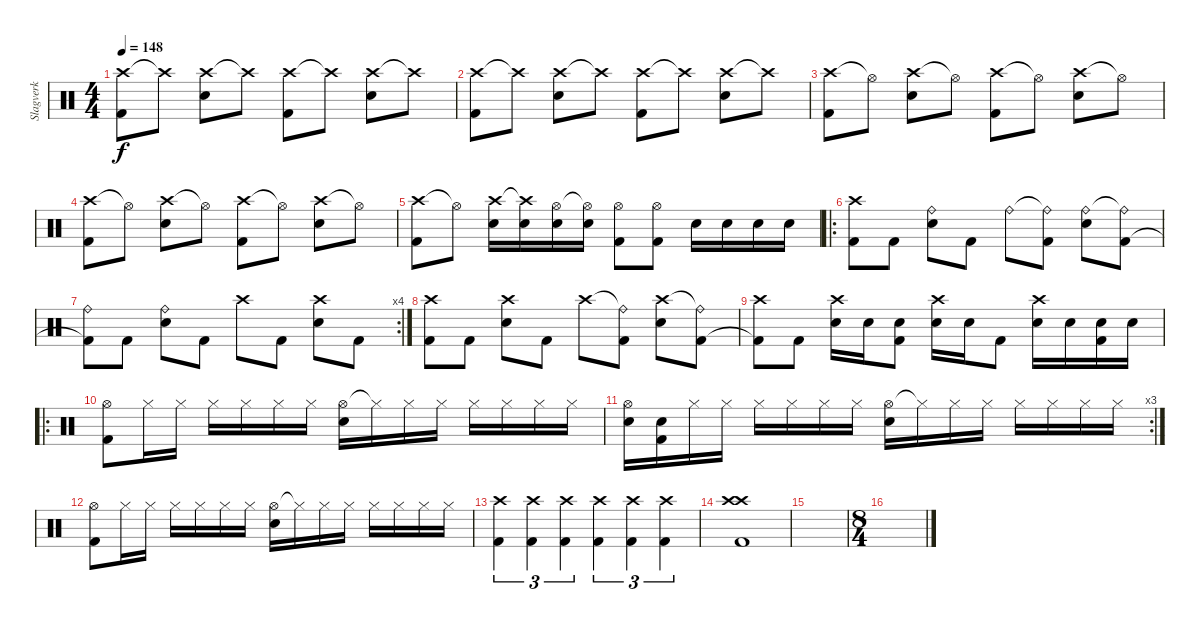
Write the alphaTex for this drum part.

\track ("Slagverk" "Slagverk") {instrument percussion}
\staff {score}
\articulation defaults
\ts (4 4)
\tempo 148
\clef neutral
\ks c
("Crash high (hit)" "Kick (hit) 2").8{dy f} "Crash high (hit)"{t}.8 ("Crash high (hit)" "Electric Snare (hit)").8 "Crash high (hit)"{t}.8 ("Crash high (hit)" "Kick (hit) 2").8 "Crash high (hit)"{t}.8 ("Crash high (hit)" "Electric Snare (hit)").8 "Crash high (hit)"{t}.8 |
("Crash high (hit)" "Kick (hit) 2").8 "Crash high (hit)"{t}.8 ("Crash high (hit)" "Electric Snare (hit)").8 "Crash high (hit)"{t}.8 ("Crash high (hit)" "Kick (hit) 2").8 "Crash high (hit)"{t}.8 ("Crash high (hit)" "Electric Snare (hit)").8 "Crash high (hit)"{t}.8 |
("Crash high (hit)" "Kick (hit) 2").8 "Hi-Hat (open)"{t}.8 ("Crash high (hit)" "Electric Snare (hit)").8 "Hi-Hat (open)"{t}.8 ("Crash high (hit)" "Kick (hit) 2").8 "Hi-Hat (open)"{t}.8 ("Crash high (hit)" "Electric Snare (hit)").8 "Hi-Hat (open)"{t}.8 |
("Crash high (hit)" "Kick (hit) 2").8 "Hi-Hat (open)"{t}.8 ("Crash high (hit)" "Electric Snare (hit)").8 "Hi-Hat (open)"{t}.8 ("Crash high (hit)" "Kick (hit) 2").8 "Hi-Hat (open)"{t}.8 ("Crash high (hit)" "Electric Snare (hit)").8 "Hi-Hat (open)"{t}.8 |
("Crash high (hit)" "Kick (hit) 2").8 "Hi-Hat (open)"{t}.8 ("Crash high (hit)" "Electric Snare (hit)").16 ("Crash high (hit)"{t} "Electric Snare (hit)").16 ("Hi-Hat (open)" "Electric Snare (hit)").16 ("Hi-Hat (open)"{t} "Electric Snare (hit)").16 ("Hi-Hat (open)" "Kick (hit) 2").8 ("Hi-Hat (open)" "Kick (hit) 2").8 "Electric Snare (hit)".16 "Electric Snare (hit)".16 "Electric Snare (hit)".16 "Electric Snare (hit)".16 |
\ro
("Crash high (hit)" "Kick (hit) 2").8 "Kick (hit) 2".8 ("Ride (bell)" "Electric Snare (hit)").8 "Kick (hit) 2".8 "Ride (bell)".8 ("Ride (bell)"{t} "Kick (hit) 2").8 ("Ride (bell)" "Electric Snare (hit)").8 ("Ride (bell)"{t} "Kick (hit) 2").8 |
\rc 4
("Ride (bell)" "Kick (hit) 2"{t}).8 "Kick (hit) 2".8 ("Ride (bell)" "Electric Snare (hit)").8 "Kick (hit) 2".8 "Crash high (hit)".8 "Kick (hit) 2".8 ("Crash high (hit)" "Electric Snare (hit)").8 "Kick (hit) 2".8 |
("Crash high (hit)" "Kick (hit) 2").8 "Kick (hit) 2".8 ("Crash high (hit)" "Electric Snare (hit)").8 "Kick (hit) 2".8 "Crash high (hit)".8 ("Ride (bell)"{t} "Kick (hit) 2").8 ("Crash high (hit)" "Electric Snare (hit)").8 ("Ride (bell)"{t} "Kick (hit) 2").8 |
("Crash high (hit)" "Kick (hit) 2"{t}).8 "Kick (hit) 2".8 ("Crash high (hit)" "Electric Snare (hit)").16 "Electric Snare (hit)".16 ("Electric Snare (hit)" "Kick (hit) 2").8 ("Crash high (hit)" "Electric Snare (hit)").16 "Electric Snare (hit)".16 "Kick (hit) 2".8 ("Crash high (hit)" "Electric Snare (hit)").16 "Electric Snare (hit)".16 ("Electric Snare (hit)" "Kick (hit) 2").16 "Electric Snare (hit)".16 |
\ro
("Hi-Hat (open)" "Kick (hit) 2").8 "Hi-Hat (closed)".16 "Hi-Hat (closed)".16 "Hi-Hat (closed)".16 "Hi-Hat (closed)".16 "Hi-Hat (closed)".16 "Hi-Hat (closed)".16 ("Hi-Hat (open)" "Electric Snare (hit)").16 "Hi-Hat (closed)"{t}.16 "Hi-Hat (closed)".16 "Hi-Hat (closed)".16 "Hi-Hat (closed)".16 "Hi-Hat (closed)".16 "Hi-Hat (closed)".16 "Hi-Hat (closed)".16 |
\rc 3
("Hi-Hat (open)" "Electric Snare (hit)").16 ("Electric Snare (hit)" "Kick (hit) 2").16 "Hi-Hat (closed)".16 "Hi-Hat (closed)".16 "Hi-Hat (closed)".16 "Hi-Hat (closed)".16 "Hi-Hat (closed)".16 "Hi-Hat (closed)".16 ("Hi-Hat (open)" "Electric Snare (hit)").16 "Hi-Hat (closed)"{t}.16 "Hi-Hat (closed)".16 "Hi-Hat (closed)".16 "Hi-Hat (closed)".16 "Hi-Hat (closed)".16 "Hi-Hat (closed)".16 "Hi-Hat (closed)".16 |
("Hi-Hat (open)" "Kick (hit) 2").8 "Hi-Hat (closed)".16 "Hi-Hat (closed)".16 "Hi-Hat (closed)".16 "Hi-Hat (closed)".16 "Hi-Hat (closed)".16 "Hi-Hat (closed)".16 ("Hi-Hat (open)" "Electric Snare (hit)").16 "Hi-Hat (closed)"{t}.16 "Hi-Hat (closed)".16 "Hi-Hat (closed)".16 "Hi-Hat (closed)".16 "Hi-Hat (closed)".16 "Hi-Hat (closed)".16 "Hi-Hat (closed)".16 |
("Crash high (hit)" "Kick (hit) 2").4{tu (3 2)} ("Crash high (hit)" "Kick (hit) 2").4{tu (3 2)} ("Crash high (hit)" "Kick (hit) 2").4{tu (3 2)} ("Crash high (hit)" "Kick (hit) 2").4{tu (3 2)} ("Crash high (hit)" "Kick (hit) 2").4{tu (3 2)} ("Crash high (hit)" "Kick (hit) 2").4{tu (3 2)} |
("Crash high (hit)" "Crash high (hit)" "Kick (hit) 2").1 |
|
\ts (8 4)
